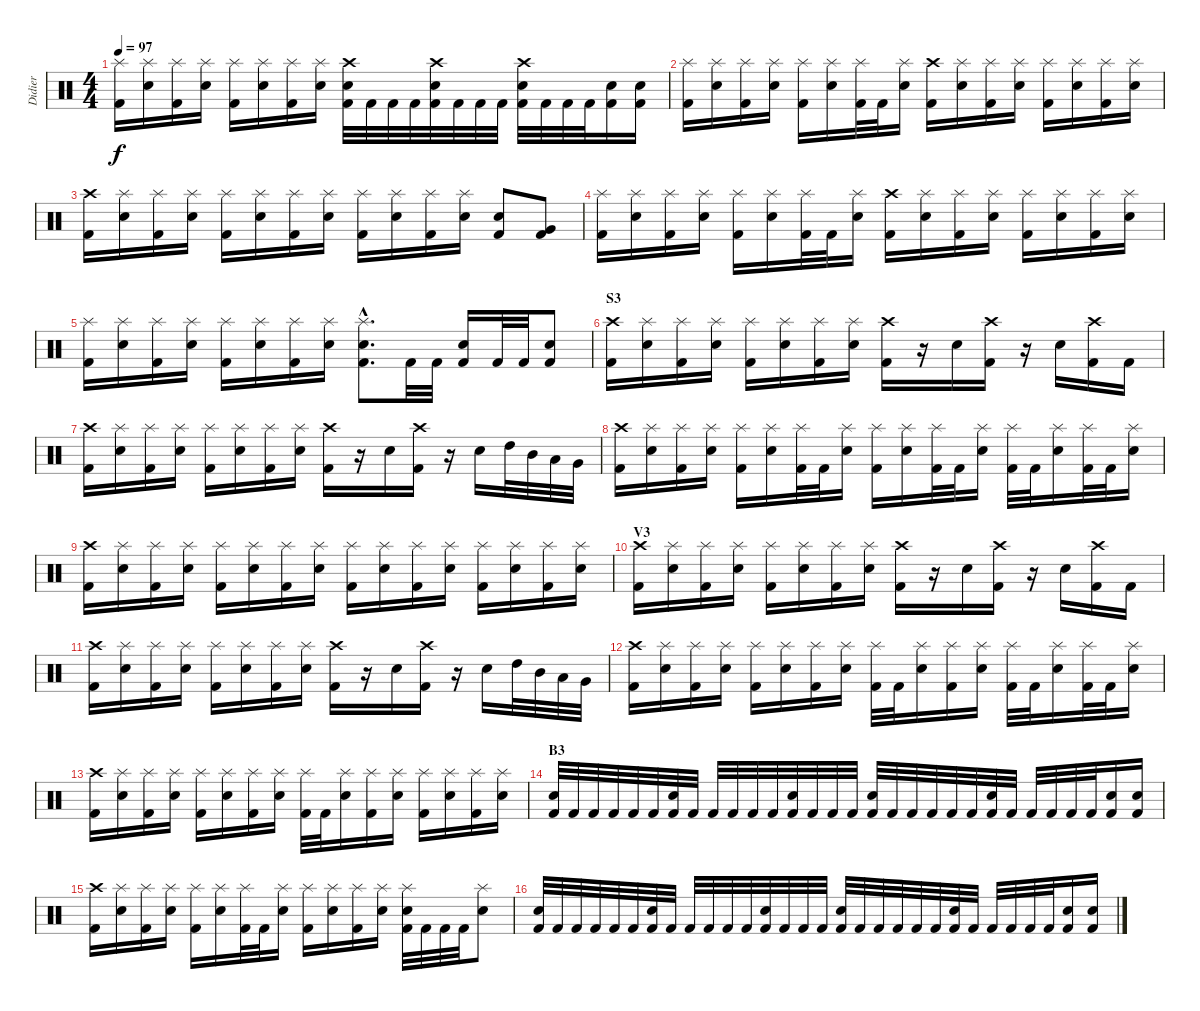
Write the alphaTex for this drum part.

\track ("Didier" "Didier") {instrument percussion}
\staff {score}
\articulation defaults
\ts (4 4)
\tempo 97
\clef neutral
\ks c
("Splash (hit)" "Kick (hit) 2").16{dy f} ("Splash (hit)" "Snare (hit) 2").16 ("Splash (hit)" "Kick (hit) 2").16 ("Splash (hit)" "Snare (hit) 2").16 ("Splash (hit)" "Kick (hit) 2").16 ("Splash (hit)" "Snare (hit) 2").16 ("Splash (hit)" "Kick (hit) 2").16 ("Splash (hit)" "Snare (hit) 2").16 ("Crash high (hit)" "Snare (hit) 2" "Kick (hit) 2").32 "Kick (hit) 2".32 "Kick (hit) 2".32 "Kick (hit) 2".32 ("Crash high (hit)" "Snare (hit) 2" "Kick (hit) 2").32 "Kick (hit) 2".32 "Kick (hit) 2".32 "Kick (hit) 2".32 ("Crash high (hit)" "Snare (hit) 2" "Kick (hit) 2").32 "Kick (hit) 2".32 "Kick (hit) 2".32 "Kick (hit) 2".32 ("Snare (hit) 2" "Kick (hit) 2").16 ("Snare (hit) 2" "Kick (hit) 2").16 |
("Splash (hit)" "Kick (hit) 2").16 ("Splash (hit)" "Snare (hit) 2").16 ("Splash (hit)" "Kick (hit) 2").16 ("Splash (hit)" "Snare (hit) 2").16 ("Splash (hit)" "Kick (hit) 2").16 ("Splash (hit)" "Snare (hit) 2").16 ("Splash (hit)" "Kick (hit) 2").32 "Kick (hit) 2".32 ("Splash (hit)" "Snare (hit) 2").16 ("Crash high (hit)" "Kick (hit) 2").16 ("Splash (hit)" "Snare (hit) 2").16 ("Splash (hit)" "Kick (hit) 2").16 ("Splash (hit)" "Snare (hit) 2").16 ("Splash (hit)" "Kick (hit) 2").16 ("Splash (hit)" "Snare (hit) 2").16 ("Splash (hit)" "Kick (hit) 2").16 ("Splash (hit)" "Snare (hit) 2").16 |
("Crash high (hit)" "Kick (hit) 2").16 ("Splash (hit)" "Snare (hit) 2").16 ("Splash (hit)" "Kick (hit) 2").16 ("Splash (hit)" "Snare (hit) 2").16 ("Splash (hit)" "Kick (hit) 2").16 ("Splash (hit)" "Snare (hit) 2").16 ("Splash (hit)" "Kick (hit) 2").16 ("Splash (hit)" "Snare (hit) 2").16 ("Splash (hit)" "Kick (hit) 2").16 ("Splash (hit)" "Snare (hit) 2").16 ("Splash (hit)" "Kick (hit) 2").16 ("Splash (hit)" "Snare (hit) 2").16 ("Snare (hit) 2" "Kick (hit) 2").8 ("Kick (hit) 2" "Very Low Tom (hit)").8 |
("Splash (hit)" "Kick (hit) 2").16 ("Splash (hit)" "Snare (hit) 2").16 ("Splash (hit)" "Kick (hit) 2").16 ("Splash (hit)" "Snare (hit) 2").16 ("Splash (hit)" "Kick (hit) 2").16 ("Splash (hit)" "Snare (hit) 2").16 ("Splash (hit)" "Kick (hit) 2").32 "Kick (hit) 2".32 ("Splash (hit)" "Snare (hit) 2").16 ("Crash high (hit)" "Kick (hit) 2").16 ("Splash (hit)" "Snare (hit) 2").16 ("Splash (hit)" "Kick (hit) 2").16 ("Splash (hit)" "Snare (hit) 2").16 ("Splash (hit)" "Kick (hit) 2").16 ("Splash (hit)" "Snare (hit) 2").16 ("Splash (hit)" "Kick (hit) 2").16 ("Splash (hit)" "Snare (hit) 2").16 |
("Splash (hit)" "Kick (hit) 2").16 ("Splash (hit)" "Snare (hit) 2").16 ("Splash (hit)" "Kick (hit) 2").16 ("Splash (hit)" "Snare (hit) 2").16 ("Splash (hit)" "Kick (hit) 2").16 ("Splash (hit)" "Snare (hit) 2").16 ("Splash (hit)" "Kick (hit) 2").16 ("Splash (hit)" "Snare (hit) 2").16 ("Splash (hit)"{hac} "Snare (hit) 2"{hac} "Kick (hit) 2"{hac}).8{d} "Kick (hit) 2".32 "Kick (hit) 2".32 ("Snare (hit) 2" "Kick (hit) 2").16 "Kick (hit) 2".32 "Kick (hit) 2".32 ("Snare (hit) 2" "Kick (hit) 2").8 |
\section ("" "S3")
("Crash high (hit)" "Kick (hit) 2").16 ("Splash (hit)" "Snare (hit) 2").16 ("Splash (hit)" "Kick (hit) 2").16 ("Splash (hit)" "Snare (hit) 2").16 ("Splash (hit)" "Kick (hit) 2").16 ("Splash (hit)" "Snare (hit) 2").16 ("Splash (hit)" "Kick (hit) 2").16 ("Splash (hit)" "Snare (hit) 2").16 ("Crash high (hit)" "Kick (hit) 2").16 r.16 "Snare (hit) 2".16 ("Crash high (hit)" "Kick (hit) 2").16 r.16 "Snare (hit) 2".16 ("Crash high (hit)" "Kick (hit) 2").16 "Kick (hit) 2".16 |
("Crash high (hit)" "Kick (hit) 2").16 ("Splash (hit)" "Snare (hit) 2").16 ("Splash (hit)" "Kick (hit) 2").16 ("Splash (hit)" "Snare (hit) 2").16 ("Splash (hit)" "Kick (hit) 2").16 ("Splash (hit)" "Snare (hit) 2").16 ("Splash (hit)" "Kick (hit) 2").16 ("Splash (hit)" "Snare (hit) 2").16 ("Crash high (hit)" "Kick (hit) 2").16 r.16 "Snare (hit) 2".16 ("Crash high (hit)" "Kick (hit) 2").16 r.16 "Snare (hit) 2".16 "High Tom (hit)".32 "Mid Tom (hit)".32 "Low Tom (hit)".32 "Very Low Tom (hit)".32 |
("Crash high (hit)" "Kick (hit) 2").16 ("Splash (hit)" "Snare (hit) 2").16 ("Splash (hit)" "Kick (hit) 2").16 ("Splash (hit)" "Snare (hit) 2").16 ("Splash (hit)" "Kick (hit) 2").16 ("Splash (hit)" "Snare (hit) 2").16 ("Splash (hit)" "Kick (hit) 2").32 "Kick (hit) 2".32 ("Splash (hit)" "Snare (hit) 2").16 ("Splash (hit)" "Kick (hit) 2").16 ("Splash (hit)" "Snare (hit) 2").16 ("Splash (hit)" "Kick (hit) 2").32 "Kick (hit) 2".32 ("Splash (hit)" "Snare (hit) 2").16 ("Splash (hit)" "Kick (hit) 2").32 "Kick (hit) 2".32 ("Splash (hit)" "Snare (hit) 2").16 ("Splash (hit)" "Kick (hit) 2").32 "Kick (hit) 2".32 ("Splash (hit)" "Snare (hit) 2").16 |
("Crash high (hit)" "Kick (hit) 2").16 ("Splash (hit)" "Snare (hit) 2").16 ("Splash (hit)" "Kick (hit) 2").16 ("Splash (hit)" "Snare (hit) 2").16 ("Splash (hit)" "Kick (hit) 2").16 ("Splash (hit)" "Snare (hit) 2").16 ("Splash (hit)" "Kick (hit) 2").16 ("Splash (hit)" "Snare (hit) 2").16 ("Splash (hit)" "Kick (hit) 2").16 ("Splash (hit)" "Snare (hit) 2").16 ("Splash (hit)" "Kick (hit) 2").16 ("Splash (hit)" "Snare (hit) 2").16 ("Splash (hit)" "Kick (hit) 2").16 ("Splash (hit)" "Snare (hit) 2").16 ("Splash (hit)" "Kick (hit) 2").16 ("Splash (hit)" "Snare (hit) 2").16 |
\section ("" "V3")
("Crash high (hit)" "Kick (hit) 2").16 ("Splash (hit)" "Snare (hit) 2").16 ("Splash (hit)" "Kick (hit) 2").16 ("Splash (hit)" "Snare (hit) 2").16 ("Splash (hit)" "Kick (hit) 2").16 ("Splash (hit)" "Snare (hit) 2").16 ("Splash (hit)" "Kick (hit) 2").16 ("Splash (hit)" "Snare (hit) 2").16 ("Crash high (hit)" "Kick (hit) 2").16 r.16 "Snare (hit) 2".16 ("Crash high (hit)" "Kick (hit) 2").16 r.16 "Snare (hit) 2".16 ("Crash high (hit)" "Kick (hit) 2").16 "Kick (hit) 2".16 |
("Crash high (hit)" "Kick (hit) 2").16 ("Splash (hit)" "Snare (hit) 2").16 ("Splash (hit)" "Kick (hit) 2").16 ("Splash (hit)" "Snare (hit) 2").16 ("Splash (hit)" "Kick (hit) 2").16 ("Splash (hit)" "Snare (hit) 2").16 ("Splash (hit)" "Kick (hit) 2").16 ("Splash (hit)" "Snare (hit) 2").16 ("Crash high (hit)" "Kick (hit) 2").16 r.16 "Snare (hit) 2".16 ("Crash high (hit)" "Kick (hit) 2").16 r.16 "Snare (hit) 2".16 "High Tom (hit)".32 "Mid Tom (hit)".32 "Low Tom (hit)".32 "Very Low Tom (hit)".32 |
("Crash high (hit)" "Kick (hit) 2").16 ("Splash (hit)" "Snare (hit) 2").16 ("Splash (hit)" "Kick (hit) 2").16 ("Splash (hit)" "Snare (hit) 2").16 ("Splash (hit)" "Kick (hit) 2").16 ("Splash (hit)" "Snare (hit) 2").16 ("Splash (hit)" "Kick (hit) 2").16 ("Splash (hit)" "Snare (hit) 2").16 ("Splash (hit)" "Kick (hit) 2").32 "Kick (hit) 2".32 ("Splash (hit)" "Snare (hit) 2").16 ("Splash (hit)" "Kick (hit) 2").16 ("Splash (hit)" "Snare (hit) 2").16 ("Splash (hit)" "Kick (hit) 2").32 "Kick (hit) 2".32 ("Splash (hit)" "Snare (hit) 2").16 ("Splash (hit)" "Kick (hit) 2").32 "Kick (hit) 2".32 ("Splash (hit)" "Snare (hit) 2").16 |
("Crash high (hit)" "Kick (hit) 2").16 ("Splash (hit)" "Snare (hit) 2").16 ("Splash (hit)" "Kick (hit) 2").16 ("Splash (hit)" "Snare (hit) 2").16 ("Splash (hit)" "Kick (hit) 2").16 ("Splash (hit)" "Snare (hit) 2").16 ("Splash (hit)" "Kick (hit) 2").16 ("Splash (hit)" "Snare (hit) 2").16 ("Splash (hit)" "Kick (hit) 2").32 "Kick (hit) 2".32 ("Splash (hit)" "Snare (hit) 2").16 ("Splash (hit)" "Kick (hit) 2").16 ("Splash (hit)" "Snare (hit) 2").16 ("Splash (hit)" "Kick (hit) 2").16 ("Splash (hit)" "Snare (hit) 2").16 ("Splash (hit)" "Kick (hit) 2").16 ("Splash (hit)" "Snare (hit) 2").16 |
\section ("" "B3")
("Snare (hit) 2" "Kick (hit) 2").32 "Kick (hit) 2".32 "Kick (hit) 2".32 "Kick (hit) 2".32 "Kick (hit) 2".32 "Kick (hit) 2".32 ("Snare (hit) 2" "Kick (hit) 2").32 "Kick (hit) 2".32 "Kick (hit) 2".32 "Kick (hit) 2".32 "Kick (hit) 2".32 "Kick (hit) 2".32 ("Snare (hit) 2" "Kick (hit) 2").32 "Kick (hit) 2".32 "Kick (hit) 2".32 "Kick (hit) 2".32 ("Snare (hit) 2" "Kick (hit) 2").32 "Kick (hit) 2".32 "Kick (hit) 2".32 "Kick (hit) 2".32 "Kick (hit) 2".32 "Kick (hit) 2".32 ("Snare (hit) 2" "Kick (hit) 2").32 "Kick (hit) 2".32 "Kick (hit) 2".32 "Kick (hit) 2".32 "Kick (hit) 2".32 "Kick (hit) 2".32 ("Snare (hit) 2" "Kick (hit) 2").16 ("Snare (hit) 2" "Kick (hit) 2").16 |
("Crash high (hit)" "Kick (hit) 2").16 ("Splash (hit)" "Snare (hit) 2").16 ("Splash (hit)" "Kick (hit) 2").16 ("Splash (hit)" "Snare (hit) 2").16 ("Splash (hit)" "Kick (hit) 2").16 ("Splash (hit)" "Snare (hit) 2").16 ("Splash (hit)" "Kick (hit) 2").32 "Kick (hit) 2".32 ("Splash (hit)" "Snare (hit) 2").16 ("Splash (hit)" "Kick (hit) 2").16 ("Splash (hit)" "Snare (hit) 2").16 ("Splash (hit)" "Kick (hit) 2").16 ("Splash (hit)" "Snare (hit) 2").16 ("Splash (hit)" "Snare (hit) 2" "Kick (hit) 2").32 "Kick (hit) 2".32 "Kick (hit) 2".32 "Kick (hit) 2".32 ("Splash (hit)" "Snare (hit) 2").8 |
("Snare (hit) 2" "Kick (hit) 2").32 "Kick (hit) 2".32 "Kick (hit) 2".32 "Kick (hit) 2".32 "Kick (hit) 2".32 "Kick (hit) 2".32 ("Snare (hit) 2" "Kick (hit) 2").32 "Kick (hit) 2".32 "Kick (hit) 2".32 "Kick (hit) 2".32 "Kick (hit) 2".32 "Kick (hit) 2".32 ("Snare (hit) 2" "Kick (hit) 2").32 "Kick (hit) 2".32 "Kick (hit) 2".32 "Kick (hit) 2".32 ("Snare (hit) 2" "Kick (hit) 2").32 "Kick (hit) 2".32 "Kick (hit) 2".32 "Kick (hit) 2".32 "Kick (hit) 2".32 "Kick (hit) 2".32 ("Snare (hit) 2" "Kick (hit) 2").32 "Kick (hit) 2".32 "Kick (hit) 2".32 "Kick (hit) 2".32 "Kick (hit) 2".32 "Kick (hit) 2".32 ("Snare (hit) 2" "Kick (hit) 2").16 ("Snare (hit) 2" "Kick (hit) 2").16
